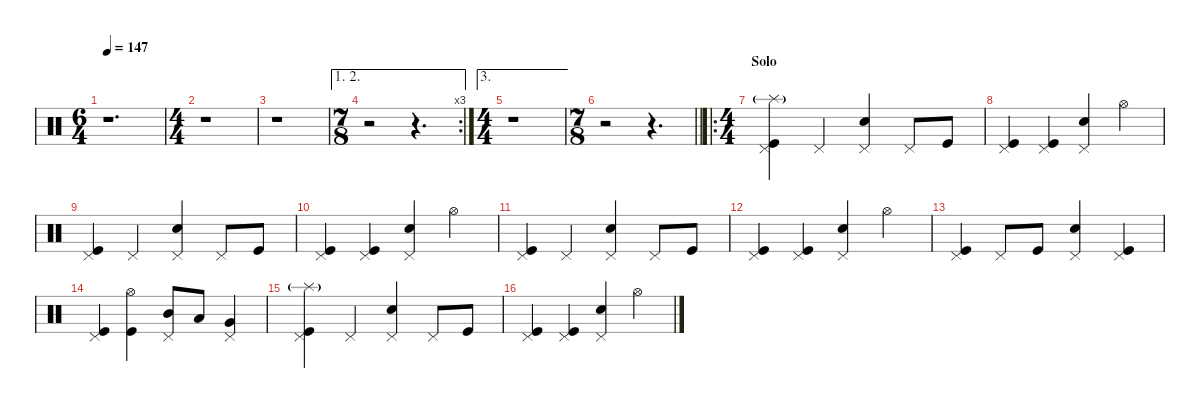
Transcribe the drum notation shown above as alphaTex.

\defaultSystemsLayout 4
\hideDynamics
\bracketExtendMode nobrackets
\singleTrackTrackNamePolicy hidden
\multiTrackTrackNamePolicy hidden
\firstSystemTrackNameMode fullname
\otherSystemsTrackNameOrientation horizontal
\track ("Percussion" "drm.") {instrument percussion}
\staff {score}
\articulation defaults
\ts (6 4)
\beaming (8 6 6)
\tempo 147
\clef neutral
\ks c
r.1{d dy f} |
\ts (4 4)
\beaming (8 2 2 2 2)
r.1 |
r.1 |
\ae (1 2)
\rc 3
\ts (7 8)
\beaming (8 3 2 2)
r.2 r.4{d} |
\ae 3
\ts (4 4)
\beaming (8 2 2 2 2)
r.1 |
\ts (7 8)
\beaming (8 3 2 2)
\barLineRight lightlight
r.2 r.4{d} |
\ro
\ts (4 4)
\beaming (8 2 2 2 2)
\section ("" "Solo")
("Splash (hit)"{g} "Kick (hit)" "Pedal Hi-Hat (hit)").4 "Pedal Hi-Hat (hit)".4 ("Snare (hit) 2" "Pedal Hi-Hat (hit)").4 "Pedal Hi-Hat (hit)".8 "Kick (hit)".8 |
("Kick (hit)" "Pedal Hi-Hat (hit)").4 ("Kick (hit)" "Pedal Hi-Hat (hit)").4 ("Snare (hit) 2" "Pedal Hi-Hat (hit)").4 "Hi-Hat (open)".4 |
("Kick (hit)" "Pedal Hi-Hat (hit)").4 "Pedal Hi-Hat (hit)".4 ("Snare (hit) 2" "Pedal Hi-Hat (hit)").4 "Pedal Hi-Hat (hit)".8 "Kick (hit)".8 |
("Kick (hit)" "Pedal Hi-Hat (hit)").4 ("Kick (hit)" "Pedal Hi-Hat (hit)").4 ("Snare (hit) 2" "Pedal Hi-Hat (hit)").4 "Hi-Hat (open)".4 |
("Kick (hit)" "Pedal Hi-Hat (hit)").4 "Pedal Hi-Hat (hit)".4 ("Snare (hit) 2" "Pedal Hi-Hat (hit)").4 "Pedal Hi-Hat (hit)".8 "Kick (hit)".8 |
("Kick (hit)" "Pedal Hi-Hat (hit)").4 ("Kick (hit)" "Pedal Hi-Hat (hit)").4 ("Snare (hit) 2" "Pedal Hi-Hat (hit)").4 "Hi-Hat (open)".4 |
("Kick (hit)" "Pedal Hi-Hat (hit)").4 "Pedal Hi-Hat (hit)".8 "Kick (hit)".8 ("Snare (hit) 2" "Pedal Hi-Hat (hit)").4 ("Kick (hit)" "Pedal Hi-Hat (hit)").4 |
("Kick (hit)" "Pedal Hi-Hat (hit)").4 ("Kick (hit)" "Hi-Hat (open)").4 ("Mid Tom (hit)" "Pedal Hi-Hat (hit)").8 "Low Tom (hit)".8{dy mf} ("Very Low Tom (hit)" "Pedal Hi-Hat (hit)").4{dy f} |
("Splash (hit)"{g} "Kick (hit)" "Pedal Hi-Hat (hit)").4 "Pedal Hi-Hat (hit)".4 ("Snare (hit) 2" "Pedal Hi-Hat (hit)").4 "Pedal Hi-Hat (hit)".8 "Kick (hit)".8 |
("Kick (hit)" "Pedal Hi-Hat (hit)").4 ("Kick (hit)" "Pedal Hi-Hat (hit)").4 ("Snare (hit) 2" "Pedal Hi-Hat (hit)").4 "Hi-Hat (open)".4
